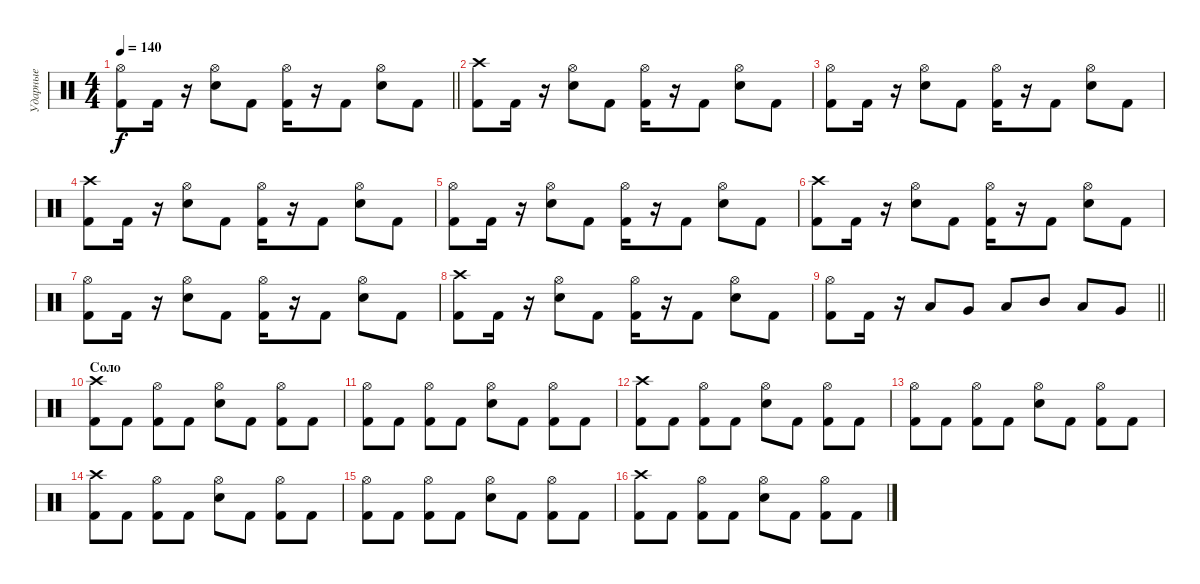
\track ("Ударные" "Ударные") {instrument percussion}
\staff {score}
\articulation defaults
\ts (4 4)
\tempo 140
\clef neutral
\barLineRight lightlight
\ks c
("Hi-Hat (open)" "Kick (hit) 2").8{dy f} "Kick (hit) 2".16 r.16 ("Hi-Hat (open)" "Electric Snare (hit)").8 "Kick (hit) 2".8 ("Hi-Hat (open)" "Kick (hit) 2").16 r.16 "Kick (hit) 2".8 ("Hi-Hat (open)" "Electric Snare (hit)").8 "Kick (hit) 2".8 |
("Crash high (hit)" "Kick (hit) 2").8 "Kick (hit) 2".16 r.16 ("Hi-Hat (open)" "Electric Snare (hit)").8 "Kick (hit) 2".8 ("Hi-Hat (open)" "Kick (hit) 2").16 r.16 "Kick (hit) 2".8 ("Hi-Hat (open)" "Electric Snare (hit)").8 "Kick (hit) 2".8 |
("Hi-Hat (open)" "Kick (hit) 2").8 "Kick (hit) 2".16 r.16 ("Hi-Hat (open)" "Electric Snare (hit)").8 "Kick (hit) 2".8 ("Hi-Hat (open)" "Kick (hit) 2").16 r.16 "Kick (hit) 2".8 ("Hi-Hat (open)" "Electric Snare (hit)").8 "Kick (hit) 2".8 |
("Crash high (hit)" "Kick (hit) 2").8 "Kick (hit) 2".16 r.16 ("Hi-Hat (open)" "Electric Snare (hit)").8 "Kick (hit) 2".8 ("Hi-Hat (open)" "Kick (hit) 2").16 r.16 "Kick (hit) 2".8 ("Hi-Hat (open)" "Electric Snare (hit)").8 "Kick (hit) 2".8 |
("Hi-Hat (open)" "Kick (hit) 2").8 "Kick (hit) 2".16 r.16 ("Hi-Hat (open)" "Electric Snare (hit)").8 "Kick (hit) 2".8 ("Hi-Hat (open)" "Kick (hit) 2").16 r.16 "Kick (hit) 2".8 ("Hi-Hat (open)" "Electric Snare (hit)").8 "Kick (hit) 2".8 |
("Crash high (hit)" "Kick (hit) 2").8 "Kick (hit) 2".16 r.16 ("Hi-Hat (open)" "Electric Snare (hit)").8 "Kick (hit) 2".8 ("Hi-Hat (open)" "Kick (hit) 2").16 r.16 "Kick (hit) 2".8 ("Hi-Hat (open)" "Electric Snare (hit)").8 "Kick (hit) 2".8 |
("Hi-Hat (open)" "Kick (hit) 2").8 "Kick (hit) 2".16 r.16 ("Hi-Hat (open)" "Electric Snare (hit)").8 "Kick (hit) 2".8 ("Hi-Hat (open)" "Kick (hit) 2").16 r.16 "Kick (hit) 2".8 ("Hi-Hat (open)" "Electric Snare (hit)").8 "Kick (hit) 2".8 |
("Crash high (hit)" "Kick (hit) 2").8 "Kick (hit) 2".16 r.16 ("Hi-Hat (open)" "Electric Snare (hit)").8 "Kick (hit) 2".8 ("Hi-Hat (open)" "Kick (hit) 2").16 r.16 "Kick (hit) 2".8 ("Hi-Hat (open)" "Electric Snare (hit)").8 "Kick (hit) 2".8 |
\barLineRight lightlight
("Hi-Hat (open)" "Kick (hit) 2").8 "Kick (hit) 2".16 r.16 "Low Tom (hit)".8 "Very Low Tom (hit)".8 "Low Floor Tom (hit)".8 "Mid Tom (hit)".8 "Low Tom (hit)".8 "Very Low Tom (hit)".8 |
\section ("" "Соло")
("Crash high (hit)" "Kick (hit) 2").8 "Kick (hit) 2".8 ("Hi-Hat (open)" "Kick (hit) 2").8 "Kick (hit) 2".8 ("Hi-Hat (open)" "Electric Snare (hit)").8 "Kick (hit) 2".8 ("Hi-Hat (open)" "Kick (hit) 2").8 "Kick (hit) 2".8 |
("Hi-Hat (open)" "Kick (hit) 2").8 "Kick (hit) 2".8 ("Hi-Hat (open)" "Kick (hit) 2").8 "Kick (hit) 2".8 ("Hi-Hat (open)" "Electric Snare (hit)").8 "Kick (hit) 2".8 ("Hi-Hat (open)" "Kick (hit) 2").8 "Kick (hit) 2".8 |
("Crash high (hit)" "Kick (hit) 2").8 "Kick (hit) 2".8 ("Hi-Hat (open)" "Kick (hit) 2").8 "Kick (hit) 2".8 ("Hi-Hat (open)" "Electric Snare (hit)").8 "Kick (hit) 2".8 ("Hi-Hat (open)" "Kick (hit) 2").8 "Kick (hit) 2".8 |
("Hi-Hat (open)" "Kick (hit) 2").8 "Kick (hit) 2".8 ("Hi-Hat (open)" "Kick (hit) 2").8 "Kick (hit) 2".8 ("Hi-Hat (open)" "Electric Snare (hit)").8 "Kick (hit) 2".8 ("Hi-Hat (open)" "Kick (hit) 2").8 "Kick (hit) 2".8 |
("Crash high (hit)" "Kick (hit) 2").8 "Kick (hit) 2".8 ("Hi-Hat (open)" "Kick (hit) 2").8 "Kick (hit) 2".8 ("Hi-Hat (open)" "Electric Snare (hit)").8 "Kick (hit) 2".8 ("Hi-Hat (open)" "Kick (hit) 2").8 "Kick (hit) 2".8 |
("Hi-Hat (open)" "Kick (hit) 2").8 "Kick (hit) 2".8 ("Hi-Hat (open)" "Kick (hit) 2").8 "Kick (hit) 2".8 ("Hi-Hat (open)" "Electric Snare (hit)").8 "Kick (hit) 2".8 ("Hi-Hat (open)" "Kick (hit) 2").8 "Kick (hit) 2".8 |
("Crash high (hit)" "Kick (hit) 2").8 "Kick (hit) 2".8 ("Hi-Hat (open)" "Kick (hit) 2").8 "Kick (hit) 2".8 ("Hi-Hat (open)" "Electric Snare (hit)").8 "Kick (hit) 2".8 ("Hi-Hat (open)" "Kick (hit) 2").8 "Kick (hit) 2".8
